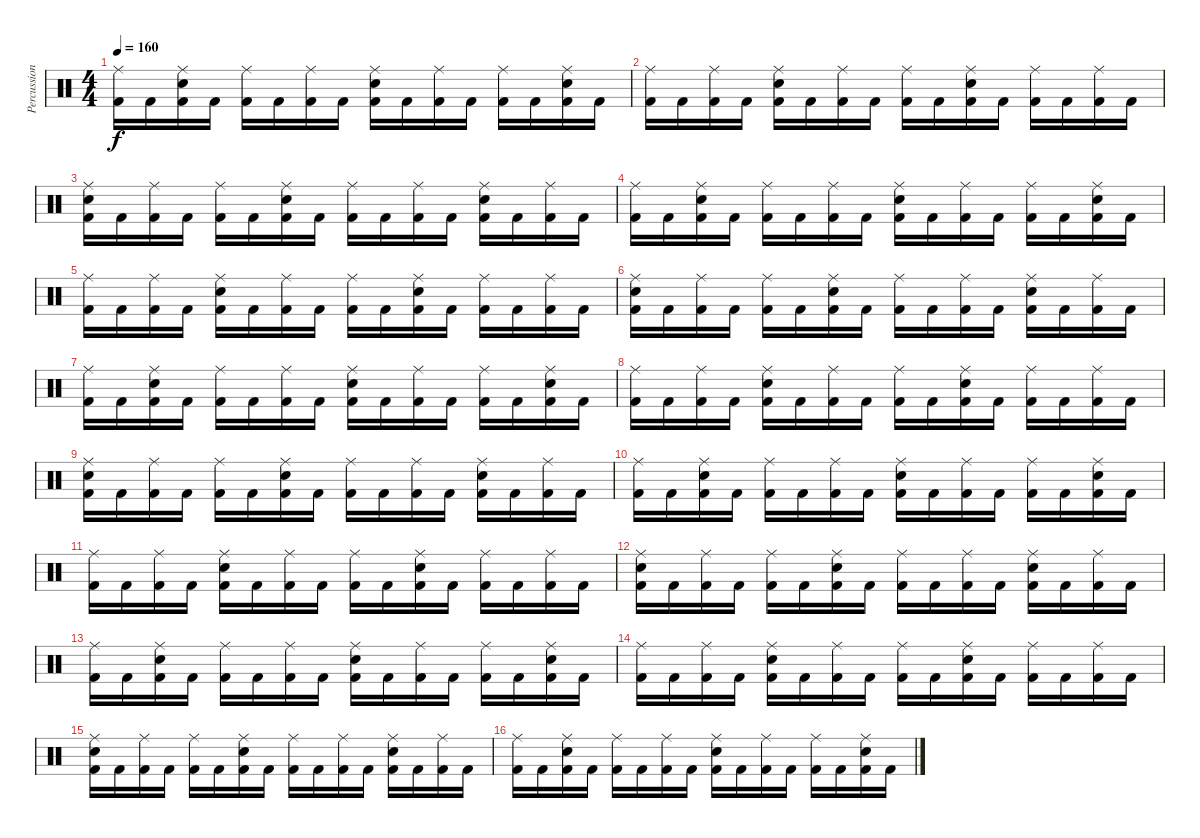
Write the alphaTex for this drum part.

\track ("Percussions" "Percussion") {instrument percussion}
\staff {score}
\articulation defaults
\ts (4 4)
\tempo 160
\clef neutral
\ks c
("Kick (hit) 2" "Ride (middle)").16{dy f} "Kick (hit) 2".16 ("Kick (hit) 2" "Electric Snare (hit)" "Ride (middle)").16 "Kick (hit) 2".16 ("Kick (hit) 2" "Ride (middle)").16 "Kick (hit) 2".16 ("Kick (hit) 2" "Ride (middle)").16 "Kick (hit) 2".16 ("Kick (hit) 2" "Electric Snare (hit)" "Ride (middle)").16 "Kick (hit) 2".16 ("Kick (hit) 2" "Ride (middle)").16 "Kick (hit) 2".16 ("Kick (hit) 2" "Ride (middle)").16 "Kick (hit) 2".16 ("Kick (hit) 2" "Electric Snare (hit)" "Ride (middle)").16 "Kick (hit) 2".16 |
("Kick (hit) 2" "Ride (middle)").16 "Kick (hit) 2".16 ("Kick (hit) 2" "Ride (middle)").16 "Kick (hit) 2".16 ("Kick (hit) 2" "Electric Snare (hit)" "Ride (middle)").16 "Kick (hit) 2".16 ("Kick (hit) 2" "Ride (middle)").16 "Kick (hit) 2".16 ("Kick (hit) 2" "Ride (middle)").16 "Kick (hit) 2".16 ("Kick (hit) 2" "Electric Snare (hit)" "Ride (middle)").16 "Kick (hit) 2".16 ("Kick (hit) 2" "Ride (middle)").16 "Kick (hit) 2".16 ("Kick (hit) 2" "Ride (middle)").16 "Kick (hit) 2".16 |
("Kick (hit) 2" "Electric Snare (hit)" "Ride (middle)").16 "Kick (hit) 2".16 ("Kick (hit) 2" "Ride (middle)").16 "Kick (hit) 2".16 ("Kick (hit) 2" "Ride (middle)").16 "Kick (hit) 2".16 ("Kick (hit) 2" "Electric Snare (hit)" "Ride (middle)").16 "Kick (hit) 2".16 ("Kick (hit) 2" "Ride (middle)").16 "Kick (hit) 2".16 ("Kick (hit) 2" "Ride (middle)").16 "Kick (hit) 2".16 ("Kick (hit) 2" "Electric Snare (hit)" "Ride (middle)").16 "Kick (hit) 2".16 ("Kick (hit) 2" "Ride (middle)").16 "Kick (hit) 2".16 |
("Kick (hit) 2" "Ride (middle)").16 "Kick (hit) 2".16 ("Kick (hit) 2" "Electric Snare (hit)" "Ride (middle)").16 "Kick (hit) 2".16 ("Kick (hit) 2" "Ride (middle)").16 "Kick (hit) 2".16 ("Kick (hit) 2" "Ride (middle)").16 "Kick (hit) 2".16 ("Kick (hit) 2" "Electric Snare (hit)" "Ride (middle)").16 "Kick (hit) 2".16 ("Kick (hit) 2" "Ride (middle)").16 "Kick (hit) 2".16 ("Kick (hit) 2" "Ride (middle)").16 "Kick (hit) 2".16 ("Kick (hit) 2" "Electric Snare (hit)" "Ride (middle)").16 "Kick (hit) 2".16 |
("Kick (hit) 2" "Ride (middle)").16 "Kick (hit) 2".16 ("Kick (hit) 2" "Ride (middle)").16 "Kick (hit) 2".16 ("Kick (hit) 2" "Electric Snare (hit)" "Ride (middle)").16 "Kick (hit) 2".16 ("Kick (hit) 2" "Ride (middle)").16 "Kick (hit) 2".16 ("Kick (hit) 2" "Ride (middle)").16 "Kick (hit) 2".16 ("Kick (hit) 2" "Electric Snare (hit)" "Ride (middle)").16 "Kick (hit) 2".16 ("Kick (hit) 2" "Ride (middle)").16 "Kick (hit) 2".16 ("Kick (hit) 2" "Ride (middle)").16 "Kick (hit) 2".16 |
("Kick (hit) 2" "Electric Snare (hit)" "Ride (middle)").16 "Kick (hit) 2".16 ("Kick (hit) 2" "Ride (middle)").16 "Kick (hit) 2".16 ("Kick (hit) 2" "Ride (middle)").16 "Kick (hit) 2".16 ("Kick (hit) 2" "Electric Snare (hit)" "Ride (middle)").16 "Kick (hit) 2".16 ("Kick (hit) 2" "Ride (middle)").16 "Kick (hit) 2".16 ("Kick (hit) 2" "Ride (middle)").16 "Kick (hit) 2".16 ("Kick (hit) 2" "Electric Snare (hit)" "Ride (middle)").16 "Kick (hit) 2".16 ("Kick (hit) 2" "Ride (middle)").16 "Kick (hit) 2".16 |
("Kick (hit) 2" "Ride (middle)").16 "Kick (hit) 2".16 ("Kick (hit) 2" "Electric Snare (hit)" "Ride (middle)").16 "Kick (hit) 2".16 ("Kick (hit) 2" "Ride (middle)").16 "Kick (hit) 2".16 ("Kick (hit) 2" "Ride (middle)").16 "Kick (hit) 2".16 ("Kick (hit) 2" "Electric Snare (hit)" "Ride (middle)").16 "Kick (hit) 2".16 ("Kick (hit) 2" "Ride (middle)").16 "Kick (hit) 2".16 ("Kick (hit) 2" "Ride (middle)").16 "Kick (hit) 2".16 ("Kick (hit) 2" "Electric Snare (hit)" "Ride (middle)").16 "Kick (hit) 2".16 |
("Kick (hit) 2" "Ride (middle)").16 "Kick (hit) 2".16 ("Kick (hit) 2" "Ride (middle)").16 "Kick (hit) 2".16 ("Kick (hit) 2" "Electric Snare (hit)" "Ride (middle)").16 "Kick (hit) 2".16 ("Kick (hit) 2" "Ride (middle)").16 "Kick (hit) 2".16 ("Kick (hit) 2" "Ride (middle)").16 "Kick (hit) 2".16 ("Kick (hit) 2" "Electric Snare (hit)" "Ride (middle)").16 "Kick (hit) 2".16 ("Kick (hit) 2" "Ride (middle)").16 "Kick (hit) 2".16 ("Kick (hit) 2" "Ride (middle)").16 "Kick (hit) 2".16 |
("Kick (hit) 2" "Electric Snare (hit)" "Ride (middle)").16 "Kick (hit) 2".16 ("Kick (hit) 2" "Ride (middle)").16 "Kick (hit) 2".16 ("Kick (hit) 2" "Ride (middle)").16 "Kick (hit) 2".16 ("Kick (hit) 2" "Electric Snare (hit)" "Ride (middle)").16 "Kick (hit) 2".16 ("Kick (hit) 2" "Ride (middle)").16 "Kick (hit) 2".16 ("Kick (hit) 2" "Ride (middle)").16 "Kick (hit) 2".16 ("Kick (hit) 2" "Electric Snare (hit)" "Ride (middle)").16 "Kick (hit) 2".16 ("Kick (hit) 2" "Ride (middle)").16 "Kick (hit) 2".16 |
("Kick (hit) 2" "Ride (middle)").16 "Kick (hit) 2".16 ("Kick (hit) 2" "Electric Snare (hit)" "Ride (middle)").16 "Kick (hit) 2".16 ("Kick (hit) 2" "Ride (middle)").16 "Kick (hit) 2".16 ("Kick (hit) 2" "Ride (middle)").16 "Kick (hit) 2".16 ("Kick (hit) 2" "Electric Snare (hit)" "Ride (middle)").16 "Kick (hit) 2".16 ("Kick (hit) 2" "Ride (middle)").16 "Kick (hit) 2".16 ("Kick (hit) 2" "Ride (middle)").16 "Kick (hit) 2".16 ("Kick (hit) 2" "Electric Snare (hit)" "Ride (middle)").16 "Kick (hit) 2".16 |
("Kick (hit) 2" "Ride (middle)").16 "Kick (hit) 2".16 ("Kick (hit) 2" "Ride (middle)").16 "Kick (hit) 2".16 ("Kick (hit) 2" "Electric Snare (hit)" "Ride (middle)").16 "Kick (hit) 2".16 ("Kick (hit) 2" "Ride (middle)").16 "Kick (hit) 2".16 ("Kick (hit) 2" "Ride (middle)").16 "Kick (hit) 2".16 ("Kick (hit) 2" "Electric Snare (hit)" "Ride (middle)").16 "Kick (hit) 2".16 ("Kick (hit) 2" "Ride (middle)").16 "Kick (hit) 2".16 ("Kick (hit) 2" "Ride (middle)").16 "Kick (hit) 2".16 |
("Kick (hit) 2" "Electric Snare (hit)" "Ride (middle)").16 "Kick (hit) 2".16 ("Kick (hit) 2" "Ride (middle)").16 "Kick (hit) 2".16 ("Kick (hit) 2" "Ride (middle)").16 "Kick (hit) 2".16 ("Kick (hit) 2" "Electric Snare (hit)" "Ride (middle)").16 "Kick (hit) 2".16 ("Kick (hit) 2" "Ride (middle)").16 "Kick (hit) 2".16 ("Kick (hit) 2" "Ride (middle)").16 "Kick (hit) 2".16 ("Kick (hit) 2" "Electric Snare (hit)" "Ride (middle)").16 "Kick (hit) 2".16 ("Kick (hit) 2" "Ride (middle)").16 "Kick (hit) 2".16 |
("Kick (hit) 2" "Ride (middle)").16 "Kick (hit) 2".16 ("Kick (hit) 2" "Electric Snare (hit)" "Ride (middle)").16 "Kick (hit) 2".16 ("Kick (hit) 2" "Ride (middle)").16 "Kick (hit) 2".16 ("Kick (hit) 2" "Ride (middle)").16 "Kick (hit) 2".16 ("Kick (hit) 2" "Electric Snare (hit)" "Ride (middle)").16 "Kick (hit) 2".16 ("Kick (hit) 2" "Ride (middle)").16 "Kick (hit) 2".16 ("Kick (hit) 2" "Ride (middle)").16 "Kick (hit) 2".16 ("Kick (hit) 2" "Electric Snare (hit)" "Ride (middle)").16 "Kick (hit) 2".16 |
("Kick (hit) 2" "Ride (middle)").16 "Kick (hit) 2".16 ("Kick (hit) 2" "Ride (middle)").16 "Kick (hit) 2".16 ("Kick (hit) 2" "Electric Snare (hit)" "Ride (middle)").16 "Kick (hit) 2".16 ("Kick (hit) 2" "Ride (middle)").16 "Kick (hit) 2".16 ("Kick (hit) 2" "Ride (middle)").16 "Kick (hit) 2".16 ("Kick (hit) 2" "Electric Snare (hit)" "Ride (middle)").16 "Kick (hit) 2".16 ("Kick (hit) 2" "Ride (middle)").16 "Kick (hit) 2".16 ("Kick (hit) 2" "Ride (middle)").16 "Kick (hit) 2".16 |
("Kick (hit) 2" "Electric Snare (hit)" "Ride (middle)").16 "Kick (hit) 2".16 ("Kick (hit) 2" "Ride (middle)").16 "Kick (hit) 2".16 ("Kick (hit) 2" "Ride (middle)").16 "Kick (hit) 2".16 ("Kick (hit) 2" "Electric Snare (hit)" "Ride (middle)").16 "Kick (hit) 2".16 ("Kick (hit) 2" "Ride (middle)").16 "Kick (hit) 2".16 ("Kick (hit) 2" "Ride (middle)").16 "Kick (hit) 2".16 ("Kick (hit) 2" "Electric Snare (hit)" "Ride (middle)").16 "Kick (hit) 2".16 ("Kick (hit) 2" "Ride (middle)").16 "Kick (hit) 2".16 |
("Kick (hit) 2" "Ride (middle)").16 "Kick (hit) 2".16 ("Kick (hit) 2" "Electric Snare (hit)" "Ride (middle)").16 "Kick (hit) 2".16 ("Kick (hit) 2" "Ride (middle)").16 "Kick (hit) 2".16 ("Kick (hit) 2" "Ride (middle)").16 "Kick (hit) 2".16 ("Kick (hit) 2" "Electric Snare (hit)" "Ride (middle)").16 "Kick (hit) 2".16 ("Kick (hit) 2" "Ride (middle)").16 "Kick (hit) 2".16 ("Kick (hit) 2" "Ride (middle)").16 "Kick (hit) 2".16 ("Kick (hit) 2" "Electric Snare (hit)" "Ride (middle)").16 "Kick (hit) 2".16
